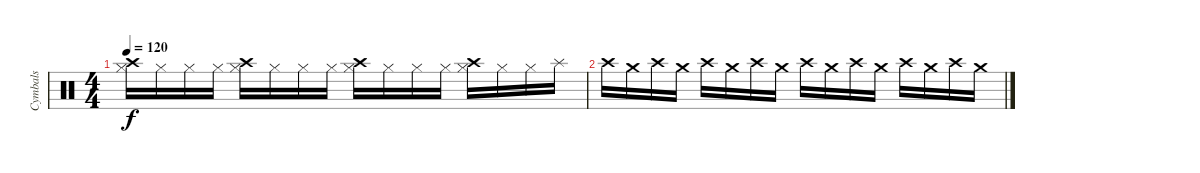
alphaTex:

\track ("Cymbals" "Cymbals") {instrument percussion}
\staff {score}
\articulation defaults
\ts (4 4)
\tempo 120
\clef neutral
\ks c
("Crash high (hit)" "Hi-Hat (closed)").16{dy f} "Hi-Hat (closed)".16 "Hi-Hat (closed)".16 "Hi-Hat (closed)".16 ("Crash high (hit)" "Hi-Hat (closed)").16 "Hi-Hat (closed)".16 "Hi-Hat (closed)".16 "Hi-Hat (closed)".16 ("Crash high (hit)" "Hi-Hat (closed)").16 "Hi-Hat (closed)".16 "Hi-Hat (closed)".16 "Hi-Hat (closed)".16 ("Crash high (hit)" "Hi-Hat (closed)").16 "Hi-Hat (closed)".16 "Hi-Hat (closed)".16 "Splash (hit)".16 |
"Crash high (hit)".16 "Crash medium (hit)".16 "Crash high (hit)".16 "Crash medium (hit)".16 "Crash high (hit)".16 "Crash medium (hit)".16 "Crash high (hit)".16 "Crash medium (hit)".16 "Crash high (hit)".16 "Crash medium (hit)".16 "Crash high (hit)".16 "Crash medium (hit)".16 "Crash high (hit)".16 "Crash medium (hit)".16 "Crash high (hit)".16 "Crash medium (hit)".16
